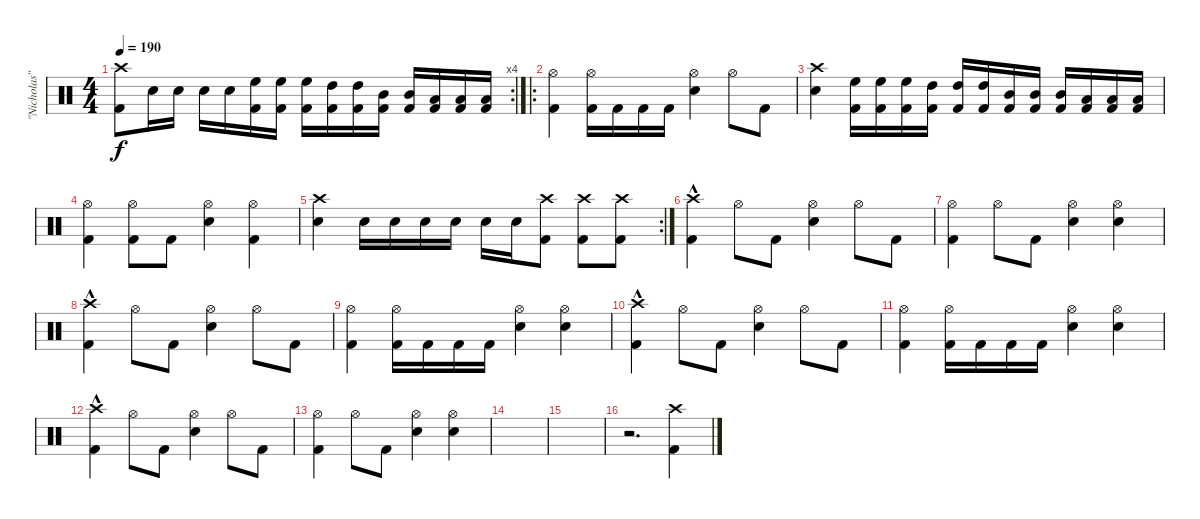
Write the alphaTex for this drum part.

\track ("\"Nicholas\"" "\"Nicholas\"") {instrument percussion}
\staff {score}
\articulation defaults
\rc 4
\ts (4 4)
\tempo 190
\clef neutral
\ks c
("Kick (hit) 2" "Crash high (hit)").8{dy f} "Snare (hit) 2".16 "Snare (hit) 2".16 "Snare (hit) 2".16 "Snare (hit) 2".16 ("Kick (hit) 2" "High Floor Tom (hit)").16 ("Kick (hit) 2" "High Floor Tom (hit)").16 ("Kick (hit) 2" "High Floor Tom (hit)").16 ("Kick (hit) 2" "High Tom (hit)").16 ("Kick (hit) 2" "High Tom (hit)").16 ("Kick (hit) 2" "Mid Tom (hit)").16 ("Kick (hit) 2" "Mid Tom (hit)").16 ("Kick (hit) 2" "Low Tom (hit)").16 ("Kick (hit) 2" "Low Tom (hit)").16 ("Kick (hit) 2" "Low Tom (hit)").16 |
\ro
("Kick (hit) 2" "Hi-Hat (open)").4 ("Kick (hit) 2" "Hi-Hat (open)").16 "Kick (hit) 2".16 "Kick (hit) 2".16 "Kick (hit) 2".16 ("Snare (hit) 2" "Hi-Hat (open)").4 "Hi-Hat (open)".8 "Kick (hit) 2".8 |
("Snare (hit) 2" "Crash high (hit)").4 ("Kick (hit) 2" "High Floor Tom (hit)").16 ("Kick (hit) 2" "High Floor Tom (hit)").16 ("Kick (hit) 2" "High Floor Tom (hit)").16 ("Kick (hit) 2" "High Tom (hit)").16 ("Kick (hit) 2" "High Tom (hit)").16 ("Kick (hit) 2" "High Tom (hit)").16 ("Kick (hit) 2" "Mid Tom (hit)").16 ("Kick (hit) 2" "Mid Tom (hit)").16 ("Kick (hit) 2" "Mid Tom (hit)").16 ("Kick (hit) 2" "Low Tom (hit)").16 ("Kick (hit) 2" "Low Tom (hit)").16 ("Kick (hit) 2" "Low Tom (hit)").16 |
("Kick (hit) 2" "Hi-Hat (open)").4 ("Kick (hit) 2" "Hi-Hat (open)").8 "Kick (hit) 2".8 ("Snare (hit) 2" "Hi-Hat (open)").4 ("Kick (hit) 2" "Hi-Hat (open)").4 |
\rc 2
("Snare (hit) 2" "Crash high (hit)").4 "Snare (hit) 2".16 "Snare (hit) 2".16 "Snare (hit) 2".16 "Snare (hit) 2".16 "Snare (hit) 2".16 "Snare (hit) 2".16 ("Kick (hit) 2" "Crash high (hit)").8 ("Kick (hit) 2" "Crash high (hit)").8 ("Kick (hit) 2" "Crash high (hit)").8 |
("Kick (hit) 2" "Crash high (hit)"{hac}).4 "Hi-Hat (open)".8 "Kick (hit) 2".8 ("Snare (hit) 2" "Hi-Hat (open)").4 "Hi-Hat (open)".8 "Kick (hit) 2".8 |
("Kick (hit) 2" "Hi-Hat (open)").4 "Hi-Hat (open)".8 "Kick (hit) 2".8 ("Snare (hit) 2" "Hi-Hat (open)").4 ("Snare (hit) 2" "Hi-Hat (open)").4 |
("Kick (hit) 2" "Crash high (hit)"{hac}).4 "Hi-Hat (open)".8 "Kick (hit) 2".8 ("Snare (hit) 2" "Hi-Hat (open)").4 "Hi-Hat (open)".8 "Kick (hit) 2".8 |
("Kick (hit) 2" "Hi-Hat (open)").4 ("Kick (hit) 2" "Hi-Hat (open)").16 "Kick (hit) 2".16 "Kick (hit) 2".16 "Kick (hit) 2".16 ("Snare (hit) 2" "Hi-Hat (open)").4 ("Snare (hit) 2" "Hi-Hat (open)").4 |
("Kick (hit) 2" "Crash high (hit)"{hac}).4 "Hi-Hat (open)".8 "Kick (hit) 2".8 ("Snare (hit) 2" "Hi-Hat (open)").4 "Hi-Hat (open)".8 "Kick (hit) 2".8 |
("Kick (hit) 2" "Hi-Hat (open)").4 ("Kick (hit) 2" "Hi-Hat (open)").16 "Kick (hit) 2".16 "Kick (hit) 2".16 "Kick (hit) 2".16 ("Snare (hit) 2" "Hi-Hat (open)").4 ("Snare (hit) 2" "Hi-Hat (open)").4 |
("Kick (hit) 2" "Crash high (hit)"{hac}).4 "Hi-Hat (open)".8 "Kick (hit) 2".8 ("Snare (hit) 2" "Hi-Hat (open)").4 "Hi-Hat (open)".8 "Kick (hit) 2".8 |
("Kick (hit) 2" "Hi-Hat (open)").4 "Hi-Hat (open)".8 "Kick (hit) 2".8 ("Snare (hit) 2" "Hi-Hat (open)").4 ("Snare (hit) 2" "Hi-Hat (open)").4 |
|
|
r.2{d} ("Kick (hit) 2" "Crash high (hit)").4
